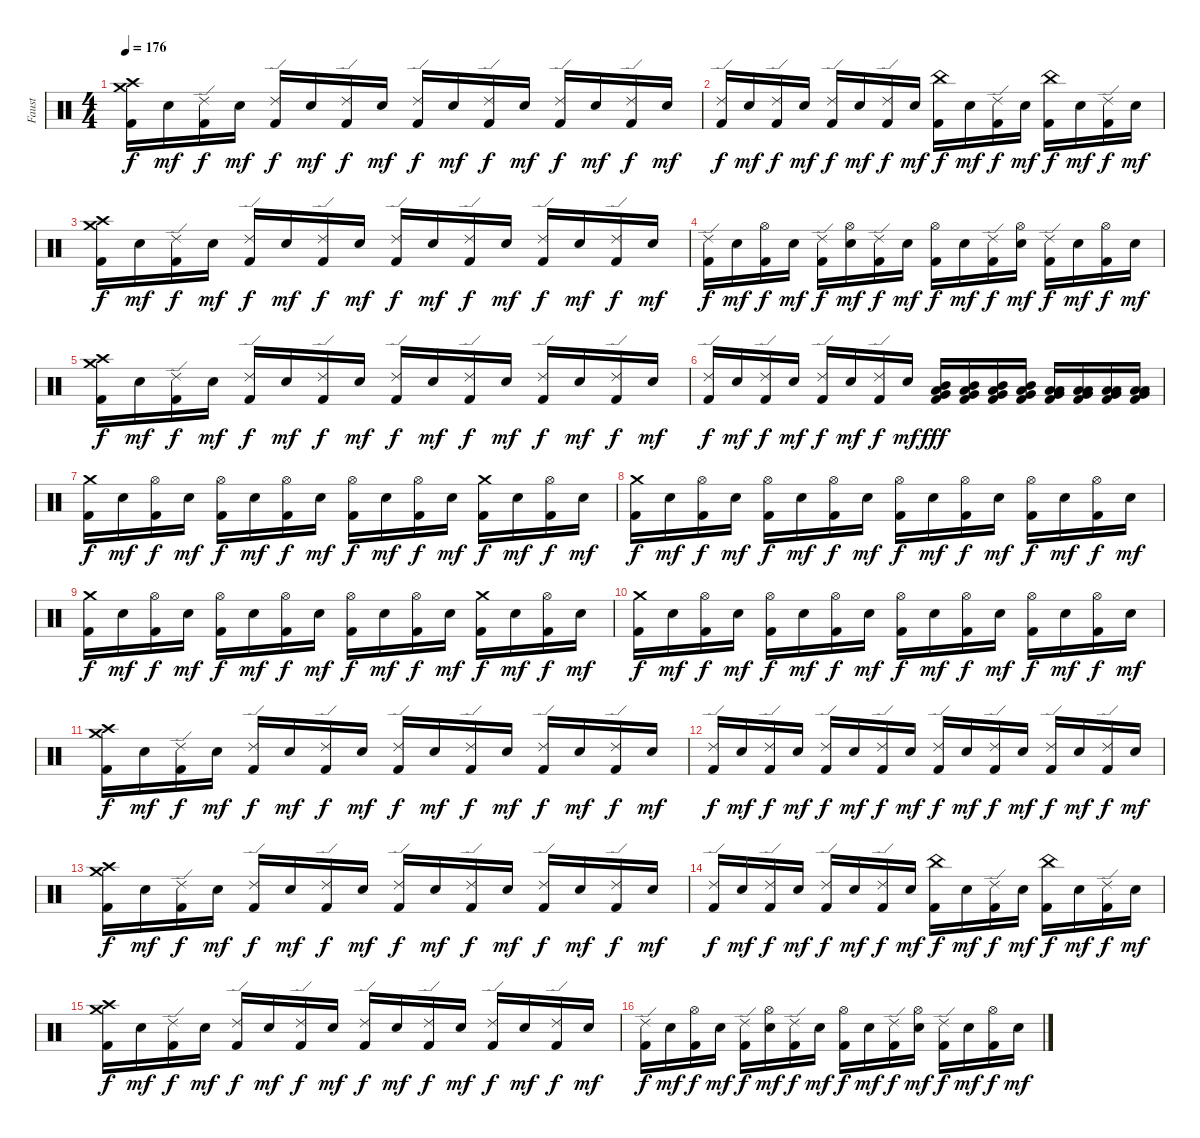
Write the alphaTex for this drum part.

\track ("Faust" "Faust") {instrument percussion}
\staff {score}
\articulation defaults
\ts (4 4)
\tempo 176
\clef neutral
\ks c
("Crash high (hit)" "Crash medium (hit)" "Kick (hit) 2").16{dy f} "Electric Snare (hit)".16{dy mf} ("Ride (edge) 2" "Kick (hit) 2").16{dy f} "Electric Snare (hit)".16{dy mf} ("Ride (edge) 2" "Kick (hit) 2").16{dy f} "Electric Snare (hit)".16{dy mf} ("Ride (edge) 2" "Kick (hit) 2").16{dy f} "Electric Snare (hit)".16{dy mf} ("Ride (edge) 2" "Kick (hit) 2").16{dy f} "Electric Snare (hit)".16{dy mf} ("Ride (edge) 2" "Kick (hit) 2").16{dy f} "Electric Snare (hit)".16{dy mf} ("Ride (edge) 2" "Kick (hit) 2").16{dy f} "Electric Snare (hit)".16{dy mf} ("Ride (edge) 2" "Kick (hit) 2").16{dy f} "Electric Snare (hit)".16{dy mf} |
("Ride (edge) 2" "Kick (hit) 2").16{dy f} "Electric Snare (hit)".16{dy mf} ("Ride (edge) 2" "Kick (hit) 2").16{dy f} "Electric Snare (hit)".16{dy mf} ("Ride (edge) 2" "Kick (hit) 2").16{dy f} "Electric Snare (hit)".16{dy mf} ("Ride (edge) 2" "Kick (hit) 2").16{dy f} "Electric Snare (hit)".16{dy mf} ("China (hit)" "Kick (hit) 2").16{dy f} "Electric Snare (hit)".16{dy mf} ("Ride (edge) 2" "Kick (hit) 2").16{dy f} "Electric Snare (hit)".16{dy mf} ("China (hit)" "Kick (hit) 2").16{dy f} "Electric Snare (hit)".16{dy mf} ("Ride (edge) 2" "Kick (hit) 2").16{dy f} "Electric Snare (hit)".16{dy mf} |
("Crash high (hit)" "Crash medium (hit)" "Kick (hit) 2").16{dy f} "Electric Snare (hit)".16{dy mf} ("Ride (edge) 2" "Kick (hit) 2").16{dy f} "Electric Snare (hit)".16{dy mf} ("Ride (edge) 2" "Kick (hit) 2").16{dy f} "Electric Snare (hit)".16{dy mf} ("Ride (edge) 2" "Kick (hit) 2").16{dy f} "Electric Snare (hit)".16{dy mf} ("Ride (edge) 2" "Kick (hit) 2").16{dy f} "Electric Snare (hit)".16{dy mf} ("Ride (edge) 2" "Kick (hit) 2").16{dy f} "Electric Snare (hit)".16{dy mf} ("Ride (edge) 2" "Kick (hit) 2").16{dy f} "Electric Snare (hit)".16{dy mf} ("Ride (edge) 2" "Kick (hit) 2").16{dy f} "Electric Snare (hit)".16{dy mf} |
("Ride (edge) 2" "Kick (hit) 2").16{dy f} "Electric Snare (hit)".16{dy mf} ("Hi-Hat (open)" "Kick (hit) 2").16{dy f} "Electric Snare (hit)".16{dy mf} ("Ride (edge) 2" "Kick (hit) 2").16{dy f} ("Hi-Hat (open)" "Electric Snare (hit)").16{dy mf} ("Ride (edge) 2" "Kick (hit) 2").16{dy f} "Electric Snare (hit)".16{dy mf} ("Hi-Hat (open)" "Kick (hit) 2").16{dy f} "Electric Snare (hit)".16{dy mf} ("Ride (edge) 2" "Kick (hit) 2").16{dy f} ("Hi-Hat (open)" "Electric Snare (hit)").16{dy mf} ("Ride (edge) 2" "Kick (hit) 2").16{dy f} "Electric Snare (hit)".16{dy mf} ("Hi-Hat (open)" "Kick (hit) 2").16{dy f} "Electric Snare (hit)".16{dy mf} |
("Crash high (hit)" "Crash medium (hit)" "Kick (hit) 2").16{dy f} "Electric Snare (hit)".16{dy mf} ("Ride (edge) 2" "Kick (hit) 2").16{dy f} "Electric Snare (hit)".16{dy mf} ("Ride (edge) 2" "Kick (hit) 2").16{dy f} "Electric Snare (hit)".16{dy mf} ("Ride (edge) 2" "Kick (hit) 2").16{dy f} "Electric Snare (hit)".16{dy mf} ("Ride (edge) 2" "Kick (hit) 2").16{dy f} "Electric Snare (hit)".16{dy mf} ("Ride (edge) 2" "Kick (hit) 2").16{dy f} "Electric Snare (hit)".16{dy mf} ("Ride (edge) 2" "Kick (hit) 2").16{dy f} "Electric Snare (hit)".16{dy mf} ("Ride (edge) 2" "Kick (hit) 2").16{dy f} "Electric Snare (hit)".16{dy mf} |
("Ride (edge) 2" "Kick (hit) 2").16{dy f} "Electric Snare (hit)".16{dy mf} ("Ride (edge) 2" "Kick (hit) 2").16{dy f} "Electric Snare (hit)".16{dy mf} ("Ride (edge) 2" "Kick (hit) 2").16{dy f} "Electric Snare (hit)".16{dy mf} ("Ride (edge) 2" "Kick (hit) 2").16{dy f} "Electric Snare (hit)".16{dy mf} ("Mid Tom (hit)" "Low Tom (hit)" "Very Low Tom (hit)" "Kick (hit) 2").16{dy fff} ("Mid Tom (hit)" "Low Tom (hit)" "Very Low Tom (hit)" "Kick (hit) 2").16 ("Mid Tom (hit)" "Low Tom (hit)" "Very Low Tom (hit)" "Kick (hit) 2").16 ("Mid Tom (hit)" "Low Tom (hit)" "Very Low Tom (hit)" "Kick (hit) 2").16 ("Low Tom (hit)" "Very Low Tom (hit)" "Low Floor Tom (hit)" "Kick (hit) 2").16 ("Low Tom (hit)" "Very Low Tom (hit)" "Low Floor Tom (hit)" "Kick (hit) 2").16 ("Low Tom (hit)" "Very Low Tom (hit)" "Low Floor Tom (hit)" "Kick (hit) 2").16 ("Low Tom (hit)" "Very Low Tom (hit)" "Low Floor Tom (hit)" "Kick (hit) 2").16 |
("Crash medium (hit)" "Kick (hit) 2").16{dy f} "Electric Snare (hit)".16{dy mf} ("Hi-Hat (open)" "Kick (hit) 2").16{dy f} "Electric Snare (hit)".16{dy mf} ("Hi-Hat (open)" "Kick (hit) 2").16{dy f} "Electric Snare (hit)".16{dy mf} ("Hi-Hat (open)" "Kick (hit) 2").16{dy f} "Electric Snare (hit)".16{dy mf} ("Hi-Hat (open)" "Kick (hit) 2").16{dy f} "Electric Snare (hit)".16{dy mf} ("Hi-Hat (open)" "Kick (hit) 2").16{dy f} "Electric Snare (hit)".16{dy mf} ("Crash medium (hit)" "Kick (hit) 2").16{dy f} "Electric Snare (hit)".16{dy mf} ("Hi-Hat (open)" "Kick (hit) 2").16{dy f} "Electric Snare (hit)".16{dy mf} |
("Crash medium (hit)" "Kick (hit) 2").16{dy f} "Electric Snare (hit)".16{dy mf} ("Hi-Hat (open)" "Kick (hit) 2").16{dy f} "Electric Snare (hit)".16{dy mf} ("Hi-Hat (open)" "Kick (hit) 2").16{dy f} "Electric Snare (hit)".16{dy mf} ("Hi-Hat (open)" "Kick (hit) 2").16{dy f} "Electric Snare (hit)".16{dy mf} ("Hi-Hat (open)" "Kick (hit) 2").16{dy f} "Electric Snare (hit)".16{dy mf} ("Hi-Hat (open)" "Kick (hit) 2").16{dy f} "Electric Snare (hit)".16{dy mf} ("Hi-Hat (open)" "Kick (hit) 2").16{dy f} "Electric Snare (hit)".16{dy mf} ("Hi-Hat (open)" "Kick (hit) 2").16{dy f} "Electric Snare (hit)".16{dy mf} |
("Crash medium (hit)" "Kick (hit) 2").16{dy f} "Electric Snare (hit)".16{dy mf} ("Hi-Hat (open)" "Kick (hit) 2").16{dy f} "Electric Snare (hit)".16{dy mf} ("Hi-Hat (open)" "Kick (hit) 2").16{dy f} "Electric Snare (hit)".16{dy mf} ("Hi-Hat (open)" "Kick (hit) 2").16{dy f} "Electric Snare (hit)".16{dy mf} ("Hi-Hat (open)" "Kick (hit) 2").16{dy f} "Electric Snare (hit)".16{dy mf} ("Hi-Hat (open)" "Kick (hit) 2").16{dy f} "Electric Snare (hit)".16{dy mf} ("Crash medium (hit)" "Kick (hit) 2").16{dy f} "Electric Snare (hit)".16{dy mf} ("Hi-Hat (open)" "Kick (hit) 2").16{dy f} "Electric Snare (hit)".16{dy mf} |
("Crash medium (hit)" "Kick (hit) 2").16{dy f} "Electric Snare (hit)".16{dy mf} ("Hi-Hat (open)" "Kick (hit) 2").16{dy f} "Electric Snare (hit)".16{dy mf} ("Hi-Hat (open)" "Kick (hit) 2").16{dy f} "Electric Snare (hit)".16{dy mf} ("Hi-Hat (open)" "Kick (hit) 2").16{dy f} "Electric Snare (hit)".16{dy mf} ("Hi-Hat (open)" "Kick (hit) 2").16{dy f} "Electric Snare (hit)".16{dy mf} ("Hi-Hat (open)" "Kick (hit) 2").16{dy f} "Electric Snare (hit)".16{dy mf} ("Hi-Hat (open)" "Kick (hit) 2").16{dy f} "Electric Snare (hit)".16{dy mf} ("Hi-Hat (open)" "Kick (hit) 2").16{dy f} "Electric Snare (hit)".16{dy mf} |
("Crash high (hit)" "Crash medium (hit)" "Kick (hit) 2").16{dy f} "Electric Snare (hit)".16{dy mf} ("Ride (edge) 2" "Kick (hit) 2").16{dy f} "Electric Snare (hit)".16{dy mf} ("Ride (edge) 2" "Kick (hit) 2").16{dy f} "Electric Snare (hit)".16{dy mf} ("Ride (edge) 2" "Kick (hit) 2").16{dy f} "Electric Snare (hit)".16{dy mf} ("Ride (edge) 2" "Kick (hit) 2").16{dy f} "Electric Snare (hit)".16{dy mf} ("Ride (edge) 2" "Kick (hit) 2").16{dy f} "Electric Snare (hit)".16{dy mf} ("Ride (edge) 2" "Kick (hit) 2").16{dy f} "Electric Snare (hit)".16{dy mf} ("Ride (edge) 2" "Kick (hit) 2").16{dy f} "Electric Snare (hit)".16{dy mf} |
("Ride (edge) 2" "Kick (hit) 2").16{dy f} "Electric Snare (hit)".16{dy mf} ("Ride (edge) 2" "Kick (hit) 2").16{dy f} "Electric Snare (hit)".16{dy mf} ("Ride (edge) 2" "Kick (hit) 2").16{dy f} "Electric Snare (hit)".16{dy mf} ("Ride (edge) 2" "Kick (hit) 2").16{dy f} "Electric Snare (hit)".16{dy mf} ("Ride (edge) 2" "Kick (hit) 2").16{dy f} "Electric Snare (hit)".16{dy mf} ("Ride (edge) 2" "Kick (hit) 2").16{dy f} "Electric Snare (hit)".16{dy mf} ("Ride (edge) 2" "Kick (hit) 2").16{dy f} "Electric Snare (hit)".16{dy mf} ("Ride (edge) 2" "Kick (hit) 2").16{dy f} "Electric Snare (hit)".16{dy mf} |
("Crash high (hit)" "Crash medium (hit)" "Kick (hit) 2").16{dy f} "Electric Snare (hit)".16{dy mf} ("Ride (edge) 2" "Kick (hit) 2").16{dy f} "Electric Snare (hit)".16{dy mf} ("Ride (edge) 2" "Kick (hit) 2").16{dy f} "Electric Snare (hit)".16{dy mf} ("Ride (edge) 2" "Kick (hit) 2").16{dy f} "Electric Snare (hit)".16{dy mf} ("Ride (edge) 2" "Kick (hit) 2").16{dy f} "Electric Snare (hit)".16{dy mf} ("Ride (edge) 2" "Kick (hit) 2").16{dy f} "Electric Snare (hit)".16{dy mf} ("Ride (edge) 2" "Kick (hit) 2").16{dy f} "Electric Snare (hit)".16{dy mf} ("Ride (edge) 2" "Kick (hit) 2").16{dy f} "Electric Snare (hit)".16{dy mf} |
("Ride (edge) 2" "Kick (hit) 2").16{dy f} "Electric Snare (hit)".16{dy mf} ("Ride (edge) 2" "Kick (hit) 2").16{dy f} "Electric Snare (hit)".16{dy mf} ("Ride (edge) 2" "Kick (hit) 2").16{dy f} "Electric Snare (hit)".16{dy mf} ("Ride (edge) 2" "Kick (hit) 2").16{dy f} "Electric Snare (hit)".16{dy mf} ("China (hit)" "Kick (hit) 2").16{dy f} "Electric Snare (hit)".16{dy mf} ("Ride (edge) 2" "Kick (hit) 2").16{dy f} "Electric Snare (hit)".16{dy mf} ("China (hit)" "Kick (hit) 2").16{dy f} "Electric Snare (hit)".16{dy mf} ("Ride (edge) 2" "Kick (hit) 2").16{dy f} "Electric Snare (hit)".16{dy mf} |
("Crash high (hit)" "Crash medium (hit)" "Kick (hit) 2").16{dy f} "Electric Snare (hit)".16{dy mf} ("Ride (edge) 2" "Kick (hit) 2").16{dy f} "Electric Snare (hit)".16{dy mf} ("Ride (edge) 2" "Kick (hit) 2").16{dy f} "Electric Snare (hit)".16{dy mf} ("Ride (edge) 2" "Kick (hit) 2").16{dy f} "Electric Snare (hit)".16{dy mf} ("Ride (edge) 2" "Kick (hit) 2").16{dy f} "Electric Snare (hit)".16{dy mf} ("Ride (edge) 2" "Kick (hit) 2").16{dy f} "Electric Snare (hit)".16{dy mf} ("Ride (edge) 2" "Kick (hit) 2").16{dy f} "Electric Snare (hit)".16{dy mf} ("Ride (edge) 2" "Kick (hit) 2").16{dy f} "Electric Snare (hit)".16{dy mf} |
("Ride (edge) 2" "Kick (hit) 2").16{dy f} "Electric Snare (hit)".16{dy mf} ("Hi-Hat (open)" "Kick (hit) 2").16{dy f} "Electric Snare (hit)".16{dy mf} ("Ride (edge) 2" "Kick (hit) 2").16{dy f} ("Hi-Hat (open)" "Electric Snare (hit)").16{dy mf} ("Ride (edge) 2" "Kick (hit) 2").16{dy f} "Electric Snare (hit)".16{dy mf} ("Hi-Hat (open)" "Kick (hit) 2").16{dy f} "Electric Snare (hit)".16{dy mf} ("Ride (edge) 2" "Kick (hit) 2").16{dy f} ("Hi-Hat (open)" "Electric Snare (hit)").16{dy mf} ("Ride (edge) 2" "Kick (hit) 2").16{dy f} "Electric Snare (hit)".16{dy mf} ("Hi-Hat (open)" "Kick (hit) 2").16{dy f} "Electric Snare (hit)".16{dy mf}
